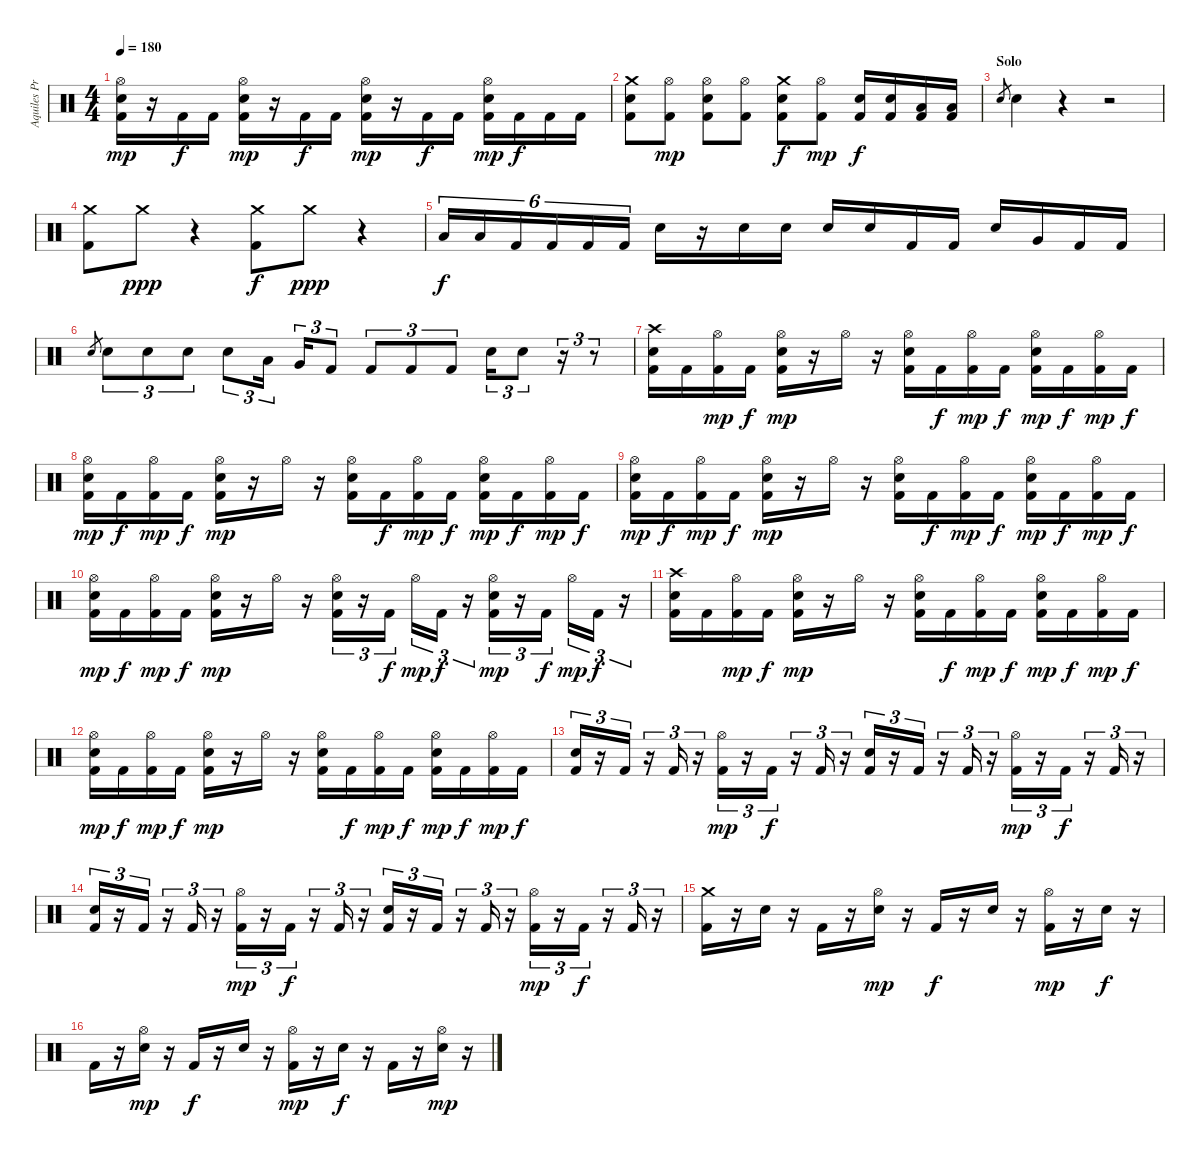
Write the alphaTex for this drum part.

\track ("Aquiles Priester" "Aquiles Pr") {instrument percussion}
\staff {score}
\articulation defaults
\ts (4 4)
\tempo 180
\clef neutral
\ks c
("Hi-Hat (open)" "Snare (hit) 2" "Kick (hit) 2").16{dy mp} r.16 "Kick (hit) 2".16{dy f} "Kick (hit) 2".16 ("Hi-Hat (open)" "Snare (hit) 2" "Kick (hit) 2").16{dy mp} r.16 "Kick (hit) 2".16{dy f} "Kick (hit) 2".16 ("Hi-Hat (open)" "Snare (hit) 2" "Kick (hit) 2").16{dy mp} r.16 "Kick (hit) 2".16{dy f} "Kick (hit) 2".16 ("Hi-Hat (open)" "Snare (hit) 2" "Kick (hit) 2").16{dy mp} "Kick (hit) 2".16{dy f} "Kick (hit) 2".16 "Kick (hit) 2".16 |
("Crash medium (hit)" "Snare (hit) 2" "Kick (hit) 2").8 ("Hi-Hat (open)" "Kick (hit) 2").8{dy mp} ("Hi-Hat (open)" "Snare (hit) 2" "Kick (hit) 2").8 ("Hi-Hat (open)" "Kick (hit) 2").8 ("Crash medium (hit)" "Snare (hit) 2" "Kick (hit) 2").8{dy f} ("Hi-Hat (open)" "Kick (hit) 2").8{dy mp} ("Snare (hit) 2" "Kick (hit) 2").16{dy f} ("Snare (hit) 2" "Kick (hit) 2").16 ("Low Tom (hit)" "Kick (hit) 2").16 ("Low Tom (hit)" "Kick (hit) 2").16 |
\section ("" "Solo")
"Snare (hit) 2".8{gr} "Snare (hit) 2".4 r.4 r.2 |
("Crash medium (hit)" "Kick (hit) 2").8 "Crash medium (hit)".8{dy ppp} r.4 ("Crash medium (hit)" "Kick (hit) 2").8{dy f} "Crash medium (hit)".8{dy ppp} r.4 |
"Low Tom (hit)".16{tu (6 4) dy f} "Low Tom (hit)".16{tu (6 4)} "Kick (hit) 2".16{tu (6 4)} "Kick (hit) 2".16{tu (6 4)} "Kick (hit) 2".16{tu (6 4)} "Kick (hit) 2".16{tu (6 4)} "Snare (hit) 2".16 r.16 "Snare (hit) 2".16 "Snare (hit) 2".16 "Snare (hit) 2".16 "Snare (hit) 2".16 "Kick (hit) 2".16 "Kick (hit) 2".16 "Snare (hit) 2".16 "Very Low Tom (hit)".16 "Kick (hit) 2".16 "Kick (hit) 2".16 |
"Snare (hit) 2".8{gr} "Snare (hit) 2".8{tu (3 2)} "Snare (hit) 2".8{tu (3 2)} "Snare (hit) 2".8{tu (3 2)} "Snare (hit) 2".8{tu (3 2)} "Low Tom (hit)".16{tu (3 2)} "Very Low Tom (hit)".16{tu (3 2)} "Kick (hit) 2".8{tu (3 2)} "Kick (hit) 2".8{tu (3 2)} "Kick (hit) 2".8{tu (3 2)} "Kick (hit) 2".8{tu (3 2)} "Snare (hit) 2".16{tu (3 2)} "Snare (hit) 2".8{tu (3 2)} r.16{tu (3 2)} r.8{tu (3 2)} |
("Crash high (hit)" "Snare (hit) 2" "Kick (hit) 2").16 "Kick (hit) 2".16 ("Hi-Hat (open)" "Kick (hit) 2").16{dy mp} "Kick (hit) 2".16{dy f} ("Hi-Hat (open)" "Snare (hit) 2" "Kick (hit) 2").16{dy mp} r.16 "Hi-Hat (open)".16 r.16 ("Hi-Hat (open)" "Snare (hit) 2" "Kick (hit) 2").16 "Kick (hit) 2".16{dy f} ("Hi-Hat (open)" "Kick (hit) 2").16{dy mp} "Kick (hit) 2".16{dy f} ("Hi-Hat (open)" "Snare (hit) 2" "Kick (hit) 2").16{dy mp} "Kick (hit) 2".16{dy f} ("Hi-Hat (open)" "Kick (hit) 2").16{dy mp} "Kick (hit) 2".16{dy f} |
("Hi-Hat (open)" "Snare (hit) 2" "Kick (hit) 2").16{dy mp} "Kick (hit) 2".16{dy f} ("Hi-Hat (open)" "Kick (hit) 2").16{dy mp} "Kick (hit) 2".16{dy f} ("Hi-Hat (open)" "Snare (hit) 2" "Kick (hit) 2").16{dy mp} r.16 "Hi-Hat (open)".16 r.16 ("Hi-Hat (open)" "Snare (hit) 2" "Kick (hit) 2").16 "Kick (hit) 2".16{dy f} ("Hi-Hat (open)" "Kick (hit) 2").16{dy mp} "Kick (hit) 2".16{dy f} ("Hi-Hat (open)" "Snare (hit) 2" "Kick (hit) 2").16{dy mp} "Kick (hit) 2".16{dy f} ("Hi-Hat (open)" "Kick (hit) 2").16{dy mp} "Kick (hit) 2".16{dy f} |
("Hi-Hat (open)" "Snare (hit) 2" "Kick (hit) 2").16{dy mp} "Kick (hit) 2".16{dy f} ("Hi-Hat (open)" "Kick (hit) 2").16{dy mp} "Kick (hit) 2".16{dy f} ("Hi-Hat (open)" "Snare (hit) 2" "Kick (hit) 2").16{dy mp} r.16 "Hi-Hat (open)".16 r.16 ("Hi-Hat (open)" "Snare (hit) 2" "Kick (hit) 2").16 "Kick (hit) 2".16{dy f} ("Hi-Hat (open)" "Kick (hit) 2").16{dy mp} "Kick (hit) 2".16{dy f} ("Hi-Hat (open)" "Snare (hit) 2" "Kick (hit) 2").16{dy mp} "Kick (hit) 2".16{dy f} ("Hi-Hat (open)" "Kick (hit) 2").16{dy mp} "Kick (hit) 2".16{dy f} |
("Hi-Hat (open)" "Snare (hit) 2" "Kick (hit) 2").16{dy mp} "Kick (hit) 2".16{dy f} ("Hi-Hat (open)" "Kick (hit) 2").16{dy mp} "Kick (hit) 2".16{dy f} ("Hi-Hat (open)" "Snare (hit) 2" "Kick (hit) 2").16{dy mp} r.16 "Hi-Hat (open)".16 r.16 ("Hi-Hat (open)" "Snare (hit) 2" "Kick (hit) 2").16{tu (3 2)} r.16{tu (3 2)} "Kick (hit) 2".16{tu (3 2) dy f} "Hi-Hat (open)".16{tu (3 2) dy mp} "Kick (hit) 2".16{tu (3 2) dy f} r.16{tu (3 2)} ("Hi-Hat (open)" "Snare (hit) 2" "Kick (hit) 2").16{tu (3 2) dy mp} r.16{tu (3 2)} "Kick (hit) 2".16{tu (3 2) dy f} "Hi-Hat (open)".16{tu (3 2) dy mp} "Kick (hit) 2".16{tu (3 2) dy f} r.16{tu (3 2)} |
("Crash high (hit)" "Snare (hit) 2" "Kick (hit) 2").16 "Kick (hit) 2".16 ("Hi-Hat (open)" "Kick (hit) 2").16{dy mp} "Kick (hit) 2".16{dy f} ("Hi-Hat (open)" "Snare (hit) 2" "Kick (hit) 2").16{dy mp} r.16 "Hi-Hat (open)".16 r.16 ("Hi-Hat (open)" "Snare (hit) 2" "Kick (hit) 2").16 "Kick (hit) 2".16{dy f} ("Hi-Hat (open)" "Kick (hit) 2").16{dy mp} "Kick (hit) 2".16{dy f} ("Hi-Hat (open)" "Snare (hit) 2" "Kick (hit) 2").16{dy mp} "Kick (hit) 2".16{dy f} ("Hi-Hat (open)" "Kick (hit) 2").16{dy mp} "Kick (hit) 2".16{dy f} |
("Hi-Hat (open)" "Snare (hit) 2" "Kick (hit) 2").16{dy mp} "Kick (hit) 2".16{dy f} ("Hi-Hat (open)" "Kick (hit) 2").16{dy mp} "Kick (hit) 2".16{dy f} ("Hi-Hat (open)" "Snare (hit) 2" "Kick (hit) 2").16{dy mp} r.16 "Hi-Hat (open)".16 r.16 ("Hi-Hat (open)" "Snare (hit) 2" "Kick (hit) 2").16 "Kick (hit) 2".16{dy f} ("Hi-Hat (open)" "Kick (hit) 2").16{dy mp} "Kick (hit) 2".16{dy f} ("Hi-Hat (open)" "Snare (hit) 2" "Kick (hit) 2").16{dy mp} "Kick (hit) 2".16{dy f} ("Hi-Hat (open)" "Kick (hit) 2").16{dy mp} "Kick (hit) 2".16{dy f} |
("Snare (hit) 2" "Kick (hit) 2").16{tu (3 2)} r.16{tu (3 2)} "Kick (hit) 2".16{tu (3 2)} r.16{tu (3 2)} "Kick (hit) 2".16{tu (3 2)} r.16{tu (3 2)} ("Hi-Hat (open)" "Kick (hit) 2").16{tu (3 2) dy mp} r.16{tu (3 2)} "Kick (hit) 2".16{tu (3 2) dy f} r.16{tu (3 2)} "Kick (hit) 2".16{tu (3 2)} r.16{tu (3 2)} ("Snare (hit) 2" "Kick (hit) 2").16{tu (3 2)} r.16{tu (3 2)} "Kick (hit) 2".16{tu (3 2)} r.16{tu (3 2)} "Kick (hit) 2".16{tu (3 2)} r.16{tu (3 2)} ("Hi-Hat (open)" "Kick (hit) 2").16{tu (3 2) dy mp} r.16{tu (3 2)} "Kick (hit) 2".16{tu (3 2) dy f} r.16{tu (3 2)} "Kick (hit) 2".16{tu (3 2)} r.16{tu (3 2)} |
("Snare (hit) 2" "Kick (hit) 2").16{tu (3 2)} r.16{tu (3 2)} "Kick (hit) 2".16{tu (3 2)} r.16{tu (3 2)} "Kick (hit) 2".16{tu (3 2)} r.16{tu (3 2)} ("Hi-Hat (open)" "Kick (hit) 2").16{tu (3 2) dy mp} r.16{tu (3 2)} "Kick (hit) 2".16{tu (3 2) dy f} r.16{tu (3 2)} "Kick (hit) 2".16{tu (3 2)} r.16{tu (3 2)} ("Snare (hit) 2" "Kick (hit) 2").16{tu (3 2)} r.16{tu (3 2)} "Kick (hit) 2".16{tu (3 2)} r.16{tu (3 2)} "Kick (hit) 2".16{tu (3 2)} r.16{tu (3 2)} ("Hi-Hat (open)" "Kick (hit) 2").16{tu (3 2) dy mp} r.16{tu (3 2)} "Kick (hit) 2".16{tu (3 2) dy f} r.16{tu (3 2)} "Kick (hit) 2".16{tu (3 2)} r.16{tu (3 2)} |
("Crash medium (hit)" "Kick (hit) 2").16 r.16 "Snare (hit) 2".16 r.16 "Kick (hit) 2".16 r.16 ("Hi-Hat (open)" "Snare (hit) 2").16{dy mp} r.16 "Kick (hit) 2".16{dy f} r.16 "Snare (hit) 2".16 r.16 ("Hi-Hat (open)" "Kick (hit) 2").16{dy mp} r.16 "Snare (hit) 2".16{dy f} r.16 |
"Kick (hit) 2".16 r.16 ("Hi-Hat (open)" "Snare (hit) 2").16{dy mp} r.16 "Kick (hit) 2".16{dy f} r.16 "Snare (hit) 2".16 r.16 ("Hi-Hat (open)" "Kick (hit) 2").16{dy mp} r.16 "Snare (hit) 2".16{dy f} r.16 "Kick (hit) 2".16 r.16 ("Hi-Hat (open)" "Snare (hit) 2").16{dy mp} r.16
